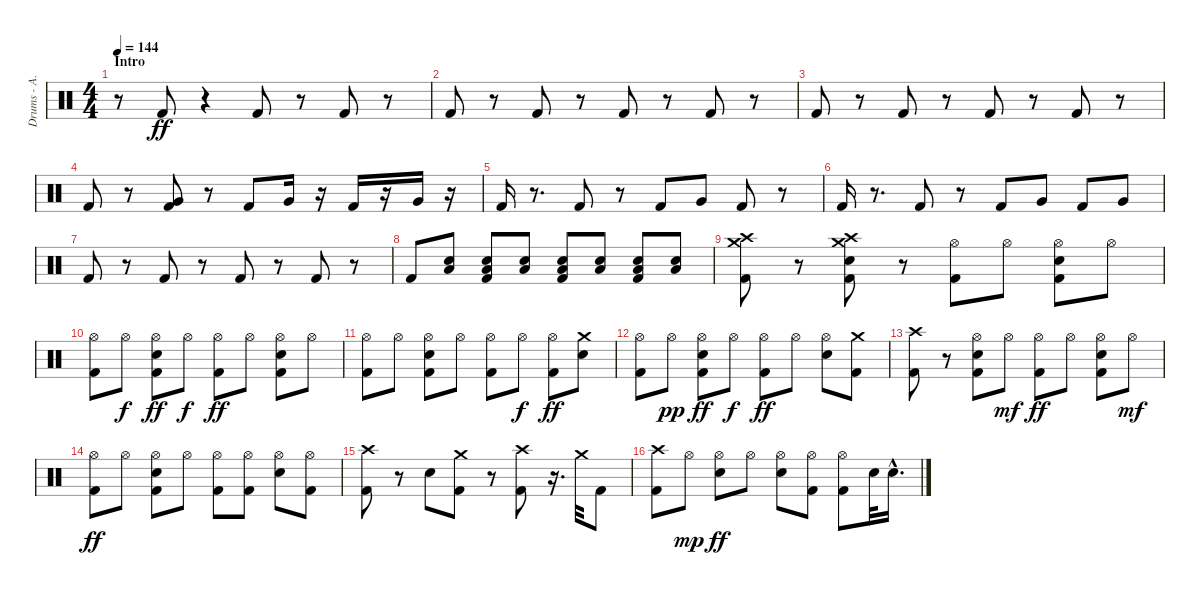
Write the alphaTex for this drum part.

\track ("Drums - A. Van Halen" "Drums - A.") {instrument percussion}
\staff {score}
\articulation defaults
\ts (4 4)
\section ("" "Intro")
\tempo 144
\clef neutral
\ks c
r.8{dy ff} "Kick (hit) 2".8 r.4 "Kick (hit) 2".8 r.8 "Kick (hit) 2".8 r.8 |
"Kick (hit) 2".8 r.8 "Kick (hit) 2".8 r.8 "Kick (hit) 2".8 r.8 "Kick (hit) 2".8 r.8 |
"Kick (hit) 2".8 r.8 "Kick (hit) 2".8 r.8 "Kick (hit) 2".8 r.8 "Kick (hit) 2".8 r.8 |
"Kick (hit) 2".8 r.8 ("Kick (hit) 2" "Very Low Tom (hit)").8 r.8 "Kick (hit) 2".8 "Very Low Tom (hit)".16 r.16 "Kick (hit) 2".16 r.16 "Very Low Tom (hit)".16 r.16 |
"Kick (hit) 2".16 r.8{d} "Kick (hit) 2".8 r.8 "Kick (hit) 2".8 "Very Low Tom (hit)".8 "Kick (hit) 2".8 r.8 |
"Kick (hit) 2".16 r.8{d} "Kick (hit) 2".8 r.8 "Kick (hit) 2".8 "Very Low Tom (hit)".8 "Kick (hit) 2".8 "Very Low Tom (hit)".8 |
"Kick (hit) 2".8 r.8 "Kick (hit) 2".8 r.8 "Kick (hit) 2".8 r.8 "Kick (hit) 2".8 r.8 |
"Kick (hit) 2".8 ("Low Floor Tom (hit)" "Electric Snare (hit)").8 ("Electric Snare (hit)" "Low Floor Tom (hit)" "Kick (hit) 2").8 ("Low Floor Tom (hit)" "Electric Snare (hit)").8 ("Kick (hit) 2" "Electric Snare (hit)" "Low Floor Tom (hit)").8 ("Electric Snare (hit)" "Low Floor Tom (hit)").8 ("Electric Snare (hit)" "Low Floor Tom (hit)" "Kick (hit) 2").8 ("Low Floor Tom (hit)" "Electric Snare (hit)").8 |
("Kick (hit) 2" "Crash high (hit)" "Crash medium (hit)").8 r.8 ("Crash high (hit)" "Crash medium (hit)" "Kick (hit) 2" "Electric Snare (hit)").8 r.8 ("Hi-Hat (open)" "Kick (hit) 2").8 "Hi-Hat (open)".8 ("Electric Snare (hit)" "Hi-Hat (open)" "Kick (hit) 2").8 "Hi-Hat (open)".8 |
("Hi-Hat (open)" "Kick (hit) 2").8 "Hi-Hat (open)".8{dy f} ("Electric Snare (hit)" "Hi-Hat (open)" "Kick (hit) 2").8{dy ff} "Hi-Hat (open)".8{dy f} ("Hi-Hat (open)" "Kick (hit) 2").8{dy ff} "Hi-Hat (open)".8 ("Kick (hit) 2" "Electric Snare (hit)" "Hi-Hat (open)").8 "Hi-Hat (open)".8 |
("Hi-Hat (open)" "Kick (hit) 2").8 "Hi-Hat (open)".8 ("Kick (hit) 2" "Electric Snare (hit)" "Hi-Hat (open)").8 "Hi-Hat (open)".8 ("Hi-Hat (open)" "Kick (hit) 2").8 "Hi-Hat (open)".8{dy f} ("Hi-Hat (open)" "Kick (hit) 2").8{dy ff} ("Electric Snare (hit)" "Crash medium (hit)").8 |
("Hi-Hat (open)" "Kick (hit) 2").8 "Hi-Hat (open)".8{dy pp} ("Electric Snare (hit)" "Hi-Hat (open)" "Kick (hit) 2").8{dy ff} "Hi-Hat (open)".8{dy f} ("Hi-Hat (open)" "Kick (hit) 2").8{dy ff} "Hi-Hat (open)".8 ("Electric Snare (hit)" "Hi-Hat (open)").8 ("Kick (hit) 2" "Crash medium (hit)").8 |
("Crash high (hit)" "Kick (hit) 2").8 r.8 ("Hi-Hat (open)" "Electric Snare (hit)" "Kick (hit) 2").8 "Hi-Hat (open)".8{dy mf} ("Hi-Hat (open)" "Kick (hit) 2").8{dy ff} "Hi-Hat (open)".8 ("Electric Snare (hit)" "Hi-Hat (open)" "Kick (hit) 2").8 "Hi-Hat (open)".8{dy mf} |
("Hi-Hat (open)" "Kick (hit) 2").8{dy ff} "Hi-Hat (open)".8 ("Kick (hit) 2" "Hi-Hat (open)" "Electric Snare (hit)").8 "Hi-Hat (open)".8 ("Kick (hit) 2" "Hi-Hat (open)").8 ("Hi-Hat (open)" "Kick (hit) 2").8 ("Electric Snare (hit)" "Hi-Hat (open)").8 ("Hi-Hat (open)" "Kick (hit) 2").8 |
("Kick (hit) 2" "Crash high (hit)").8 r.8 "Electric Snare (hit)".8 ("Kick (hit) 2" "Crash medium (hit)").8 r.8 ("Kick (hit) 2" "Crash high (hit)").8 r.16{d} "Crash medium (hit)".32 "Kick (hit) 2".8 |
("Kick (hit) 2" "Crash high (hit)").8 "Hi-Hat (open)".8{dy mp} ("Electric Snare (hit)" "Hi-Hat (open)").8{dy ff} "Hi-Hat (open)".8 ("Electric Snare (hit)" "Hi-Hat (open)").8 ("Kick (hit) 2" "Hi-Hat (open)").8 ("Kick (hit) 2" "Hi-Hat (open)").8 "Electric Snare (hit)".32 "Electric Snare (hit)"{hac}.16{d}
